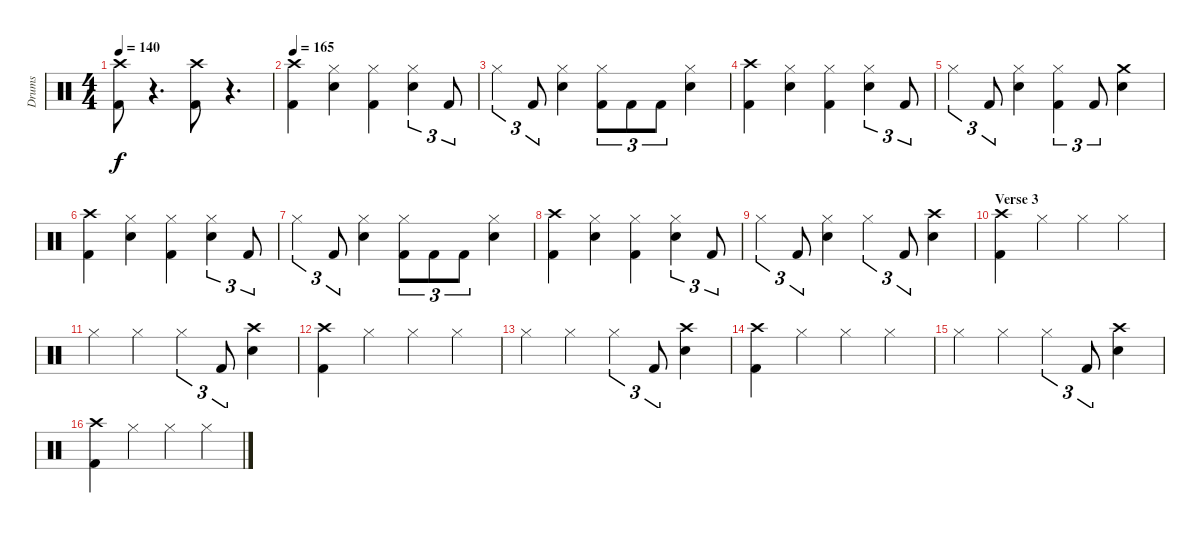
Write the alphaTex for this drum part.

\track ("Drums" "Drums") {instrument percussion}
\staff {score}
\articulation defaults
\ts (4 4)
\tempo 140
\clef neutral
\ks c
("Kick (hit) 2" "Crash high (hit)").8{dy f} r.4{d} ("Kick (hit) 2" "Crash high (hit)").8 r.4{d} |
\tempo 165
("Kick (hit) 2" "Crash high (hit)").4 ("Snare (hit) 2" "Hi-Hat (closed)").4 ("Kick (hit) 2" "Hi-Hat (closed)").4 ("Snare (hit) 2" "Hi-Hat (closed)").4{tu (3 2)} "Kick (hit) 2".8{tu (3 2)} |
"Hi-Hat (closed)".4{tu (3 2)} "Kick (hit) 2".8{tu (3 2)} ("Snare (hit) 2" "Hi-Hat (closed)").4 ("Kick (hit) 2" "Hi-Hat (closed)").8{tu (3 2)} "Kick (hit) 2".8{tu (3 2)} "Kick (hit) 2".8{tu (3 2)} ("Snare (hit) 2" "Hi-Hat (closed)").4 |
("Kick (hit) 2" "Crash high (hit)").4 ("Snare (hit) 2" "Hi-Hat (closed)").4 ("Kick (hit) 2" "Hi-Hat (closed)").4 ("Snare (hit) 2" "Hi-Hat (closed)").4{tu (3 2)} "Kick (hit) 2".8{tu (3 2)} |
"Hi-Hat (closed)".4{tu (3 2)} "Kick (hit) 2".8{tu (3 2)} ("Snare (hit) 2" "Hi-Hat (closed)").4 ("Kick (hit) 2" "Hi-Hat (closed)").4{tu (3 2)} "Kick (hit) 2".8{tu (3 2)} ("Snare (hit) 2" "Crash medium (hit)").4 |
("Kick (hit) 2" "Crash high (hit)").4 ("Snare (hit) 2" "Hi-Hat (closed)").4 ("Kick (hit) 2" "Hi-Hat (closed)").4 ("Snare (hit) 2" "Hi-Hat (closed)").4{tu (3 2)} "Kick (hit) 2".8{tu (3 2)} |
"Hi-Hat (closed)".4{tu (3 2)} "Kick (hit) 2".8{tu (3 2)} ("Snare (hit) 2" "Hi-Hat (closed)").4 ("Kick (hit) 2" "Hi-Hat (closed)").8{tu (3 2)} "Kick (hit) 2".8{tu (3 2)} "Kick (hit) 2".8{tu (3 2)} ("Snare (hit) 2" "Hi-Hat (closed)").4 |
("Kick (hit) 2" "Crash high (hit)").4 ("Snare (hit) 2" "Hi-Hat (closed)").4 ("Kick (hit) 2" "Hi-Hat (closed)").4 ("Snare (hit) 2" "Hi-Hat (closed)").4{tu (3 2)} "Kick (hit) 2".8{tu (3 2)} |
"Hi-Hat (closed)".4{tu (3 2)} "Kick (hit) 2".8{tu (3 2)} ("Snare (hit) 2" "Hi-Hat (closed)").4 "Hi-Hat (closed)".4{tu (3 2)} "Kick (hit) 2".8{tu (3 2)} ("Snare (hit) 2" "Crash high (hit)").4 |
\section ("" "Verse 3")
("Kick (hit) 2" "Crash high (hit)").4 "Hi-Hat (closed)".4 "Hi-Hat (closed)".4 "Hi-Hat (closed)".4 |
"Hi-Hat (closed)".4 "Hi-Hat (closed)".4 "Hi-Hat (closed)".4{tu (3 2)} "Kick (hit) 2".8{tu (3 2)} ("Snare (hit) 2" "Crash high (hit)").4 |
("Kick (hit) 2" "Crash high (hit)").4 "Hi-Hat (closed)".4 "Hi-Hat (closed)".4 "Hi-Hat (closed)".4 |
"Hi-Hat (closed)".4 "Hi-Hat (closed)".4 "Hi-Hat (closed)".4{tu (3 2)} "Kick (hit) 2".8{tu (3 2)} ("Snare (hit) 2" "Crash high (hit)").4 |
("Kick (hit) 2" "Crash high (hit)").4 "Hi-Hat (closed)".4 "Hi-Hat (closed)".4 "Hi-Hat (closed)".4 |
"Hi-Hat (closed)".4 "Hi-Hat (closed)".4 "Hi-Hat (closed)".4{tu (3 2)} "Kick (hit) 2".8{tu (3 2)} ("Snare (hit) 2" "Crash high (hit)").4 |
("Kick (hit) 2" "Crash high (hit)").4 "Hi-Hat (closed)".4 "Hi-Hat (closed)".4 "Hi-Hat (closed)".4
